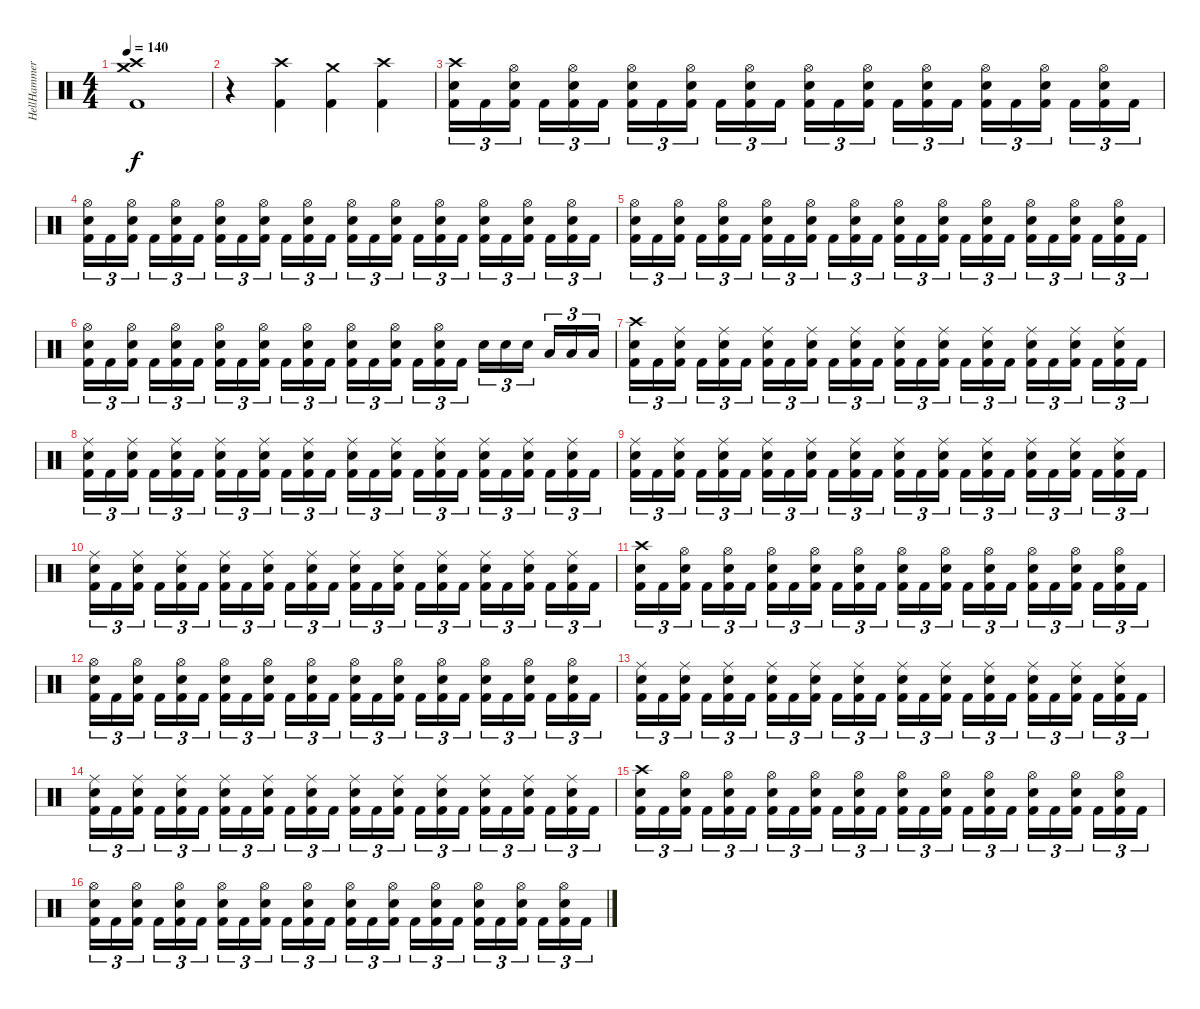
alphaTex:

\track ("HellHammer" "HellHammer") {instrument percussion}
\staff {score}
\articulation defaults
\ts (4 4)
\tempo 140
\clef neutral
\ks c
("Crash medium (hit)" "Crash high (hit)" "Kick (hit) 2").1{dy f} |
r.4 ("Crash high (hit)" "Kick (hit) 2").4 ("Crash medium (hit)" "Kick (hit) 2").4 ("Crash high (hit)" "Kick (hit) 2").4 |
("Crash high (hit)" "Electric Snare (hit)" "Kick (hit) 2").16{tu (3 2)} "Kick (hit) 2".16{tu (3 2)} ("Hi-Hat (open)" "Electric Snare (hit)" "Kick (hit) 2").16{tu (3 2) beam splitsecondary} "Kick (hit) 2".16{tu (3 2)} ("Hi-Hat (open)" "Electric Snare (hit)" "Kick (hit) 2").16{tu (3 2)} "Kick (hit) 2".16{tu (3 2)} ("Hi-Hat (open)" "Electric Snare (hit)" "Kick (hit) 2").16{tu (3 2)} "Kick (hit) 2".16{tu (3 2)} ("Hi-Hat (open)" "Electric Snare (hit)" "Kick (hit) 2").16{tu (3 2) beam splitsecondary} "Kick (hit) 2".16{tu (3 2)} ("Hi-Hat (open)" "Electric Snare (hit)" "Kick (hit) 2").16{tu (3 2)} "Kick (hit) 2".16{tu (3 2)} ("Hi-Hat (open)" "Electric Snare (hit)" "Kick (hit) 2").16{tu (3 2)} "Kick (hit) 2".16{tu (3 2)} ("Hi-Hat (open)" "Electric Snare (hit)" "Kick (hit) 2").16{tu (3 2) beam splitsecondary} "Kick (hit) 2".16{tu (3 2)} ("Hi-Hat (open)" "Electric Snare (hit)" "Kick (hit) 2").16{tu (3 2)} "Kick (hit) 2".16{tu (3 2)} ("Hi-Hat (open)" "Electric Snare (hit)" "Kick (hit) 2").16{tu (3 2)} "Kick (hit) 2".16{tu (3 2)} ("Hi-Hat (open)" "Electric Snare (hit)" "Kick (hit) 2").16{tu (3 2) beam splitsecondary} "Kick (hit) 2".16{tu (3 2)} ("Hi-Hat (open)" "Electric Snare (hit)" "Kick (hit) 2").16{tu (3 2)} "Kick (hit) 2".16{tu (3 2)} |
("Hi-Hat (open)" "Electric Snare (hit)" "Kick (hit) 2").16{tu (3 2)} "Kick (hit) 2".16{tu (3 2)} ("Hi-Hat (open)" "Electric Snare (hit)" "Kick (hit) 2").16{tu (3 2) beam splitsecondary} "Kick (hit) 2".16{tu (3 2)} ("Hi-Hat (open)" "Electric Snare (hit)" "Kick (hit) 2").16{tu (3 2)} "Kick (hit) 2".16{tu (3 2)} ("Hi-Hat (open)" "Electric Snare (hit)" "Kick (hit) 2").16{tu (3 2)} "Kick (hit) 2".16{tu (3 2)} ("Hi-Hat (open)" "Electric Snare (hit)" "Kick (hit) 2").16{tu (3 2) beam splitsecondary} "Kick (hit) 2".16{tu (3 2)} ("Hi-Hat (open)" "Electric Snare (hit)" "Kick (hit) 2").16{tu (3 2)} "Kick (hit) 2".16{tu (3 2)} ("Hi-Hat (open)" "Electric Snare (hit)" "Kick (hit) 2").16{tu (3 2)} "Kick (hit) 2".16{tu (3 2)} ("Hi-Hat (open)" "Electric Snare (hit)" "Kick (hit) 2").16{tu (3 2) beam splitsecondary} "Kick (hit) 2".16{tu (3 2)} ("Hi-Hat (open)" "Electric Snare (hit)" "Kick (hit) 2").16{tu (3 2)} "Kick (hit) 2".16{tu (3 2)} ("Hi-Hat (open)" "Electric Snare (hit)" "Kick (hit) 2").16{tu (3 2)} "Kick (hit) 2".16{tu (3 2)} ("Hi-Hat (open)" "Electric Snare (hit)" "Kick (hit) 2").16{tu (3 2) beam splitsecondary} "Kick (hit) 2".16{tu (3 2)} ("Hi-Hat (open)" "Electric Snare (hit)" "Kick (hit) 2").16{tu (3 2)} "Kick (hit) 2".16{tu (3 2)} |
("Hi-Hat (open)" "Electric Snare (hit)" "Kick (hit) 2").16{tu (3 2)} "Kick (hit) 2".16{tu (3 2)} ("Hi-Hat (open)" "Electric Snare (hit)" "Kick (hit) 2").16{tu (3 2) beam splitsecondary} "Kick (hit) 2".16{tu (3 2)} ("Hi-Hat (open)" "Electric Snare (hit)" "Kick (hit) 2").16{tu (3 2)} "Kick (hit) 2".16{tu (3 2)} ("Hi-Hat (open)" "Electric Snare (hit)" "Kick (hit) 2").16{tu (3 2)} "Kick (hit) 2".16{tu (3 2)} ("Hi-Hat (open)" "Electric Snare (hit)" "Kick (hit) 2").16{tu (3 2) beam splitsecondary} "Kick (hit) 2".16{tu (3 2)} ("Hi-Hat (open)" "Electric Snare (hit)" "Kick (hit) 2").16{tu (3 2)} "Kick (hit) 2".16{tu (3 2)} ("Hi-Hat (open)" "Electric Snare (hit)" "Kick (hit) 2").16{tu (3 2)} "Kick (hit) 2".16{tu (3 2)} ("Hi-Hat (open)" "Electric Snare (hit)" "Kick (hit) 2").16{tu (3 2) beam splitsecondary} "Kick (hit) 2".16{tu (3 2)} ("Hi-Hat (open)" "Electric Snare (hit)" "Kick (hit) 2").16{tu (3 2)} "Kick (hit) 2".16{tu (3 2)} ("Hi-Hat (open)" "Electric Snare (hit)" "Kick (hit) 2").16{tu (3 2)} "Kick (hit) 2".16{tu (3 2)} ("Hi-Hat (open)" "Electric Snare (hit)" "Kick (hit) 2").16{tu (3 2) beam splitsecondary} "Kick (hit) 2".16{tu (3 2)} ("Hi-Hat (open)" "Electric Snare (hit)" "Kick (hit) 2").16{tu (3 2)} "Kick (hit) 2".16{tu (3 2)} |
("Hi-Hat (open)" "Electric Snare (hit)" "Kick (hit) 2").16{tu (3 2)} "Kick (hit) 2".16{tu (3 2)} ("Hi-Hat (open)" "Electric Snare (hit)" "Kick (hit) 2").16{tu (3 2) beam splitsecondary} "Kick (hit) 2".16{tu (3 2)} ("Hi-Hat (open)" "Electric Snare (hit)" "Kick (hit) 2").16{tu (3 2)} "Kick (hit) 2".16{tu (3 2)} ("Hi-Hat (open)" "Electric Snare (hit)" "Kick (hit) 2").16{tu (3 2)} "Kick (hit) 2".16{tu (3 2)} ("Hi-Hat (open)" "Electric Snare (hit)" "Kick (hit) 2").16{tu (3 2) beam splitsecondary} "Kick (hit) 2".16{tu (3 2)} ("Hi-Hat (open)" "Electric Snare (hit)" "Kick (hit) 2").16{tu (3 2)} "Kick (hit) 2".16{tu (3 2)} ("Hi-Hat (open)" "Electric Snare (hit)" "Kick (hit) 2").16{tu (3 2)} "Kick (hit) 2".16{tu (3 2)} ("Hi-Hat (open)" "Electric Snare (hit)" "Kick (hit) 2").16{tu (3 2) beam splitsecondary} "Kick (hit) 2".16{tu (3 2)} ("Hi-Hat (open)" "Electric Snare (hit)" "Kick (hit) 2").16{tu (3 2)} "Kick (hit) 2".16{tu (3 2)} "Electric Snare (hit)".16{tu (3 2)} "Electric Snare (hit)".16{tu (3 2)} "Electric Snare (hit)".16{tu (3 2) beam splitsecondary} "Low Tom (hit)".16{tu (3 2)} "Low Tom (hit)".16{tu (3 2)} "Low Tom (hit)".16{tu (3 2)} |
("Crash high (hit)" "Electric Snare (hit)" "Kick (hit) 2").16{tu (3 2)} "Kick (hit) 2".16{tu (3 2)} ("Ride (middle)" "Electric Snare (hit)" "Kick (hit) 2").16{tu (3 2) beam splitsecondary} "Kick (hit) 2".16{tu (3 2)} ("Ride (middle)" "Electric Snare (hit)" "Kick (hit) 2").16{tu (3 2)} "Kick (hit) 2".16{tu (3 2)} ("Ride (middle)" "Electric Snare (hit)" "Kick (hit) 2").16{tu (3 2)} "Kick (hit) 2".16{tu (3 2)} ("Ride (middle)" "Electric Snare (hit)" "Kick (hit) 2").16{tu (3 2) beam splitsecondary} "Kick (hit) 2".16{tu (3 2)} ("Ride (middle)" "Electric Snare (hit)" "Kick (hit) 2").16{tu (3 2)} "Kick (hit) 2".16{tu (3 2)} ("Ride (middle)" "Electric Snare (hit)" "Kick (hit) 2").16{tu (3 2)} "Kick (hit) 2".16{tu (3 2)} ("Ride (middle)" "Electric Snare (hit)" "Kick (hit) 2").16{tu (3 2) beam splitsecondary} "Kick (hit) 2".16{tu (3 2)} ("Ride (middle)" "Electric Snare (hit)" "Kick (hit) 2").16{tu (3 2)} "Kick (hit) 2".16{tu (3 2)} ("Ride (middle)" "Electric Snare (hit)" "Kick (hit) 2").16{tu (3 2)} "Kick (hit) 2".16{tu (3 2)} ("Ride (middle)" "Electric Snare (hit)" "Kick (hit) 2").16{tu (3 2) beam splitsecondary} "Kick (hit) 2".16{tu (3 2)} ("Ride (middle)" "Electric Snare (hit)" "Kick (hit) 2").16{tu (3 2)} "Kick (hit) 2".16{tu (3 2)} |
("Ride (middle)" "Electric Snare (hit)" "Kick (hit) 2").16{tu (3 2)} "Kick (hit) 2".16{tu (3 2)} ("Ride (middle)" "Electric Snare (hit)" "Kick (hit) 2").16{tu (3 2) beam splitsecondary} "Kick (hit) 2".16{tu (3 2)} ("Ride (middle)" "Electric Snare (hit)" "Kick (hit) 2").16{tu (3 2)} "Kick (hit) 2".16{tu (3 2)} ("Ride (middle)" "Electric Snare (hit)" "Kick (hit) 2").16{tu (3 2)} "Kick (hit) 2".16{tu (3 2)} ("Ride (middle)" "Electric Snare (hit)" "Kick (hit) 2").16{tu (3 2) beam splitsecondary} "Kick (hit) 2".16{tu (3 2)} ("Ride (middle)" "Electric Snare (hit)" "Kick (hit) 2").16{tu (3 2)} "Kick (hit) 2".16{tu (3 2)} ("Ride (middle)" "Electric Snare (hit)" "Kick (hit) 2").16{tu (3 2)} "Kick (hit) 2".16{tu (3 2)} ("Ride (middle)" "Electric Snare (hit)" "Kick (hit) 2").16{tu (3 2) beam splitsecondary} "Kick (hit) 2".16{tu (3 2)} ("Ride (middle)" "Electric Snare (hit)" "Kick (hit) 2").16{tu (3 2)} "Kick (hit) 2".16{tu (3 2)} ("Ride (middle)" "Electric Snare (hit)" "Kick (hit) 2").16{tu (3 2)} "Kick (hit) 2".16{tu (3 2)} ("Ride (middle)" "Electric Snare (hit)" "Kick (hit) 2").16{tu (3 2) beam splitsecondary} "Kick (hit) 2".16{tu (3 2)} ("Ride (middle)" "Electric Snare (hit)" "Kick (hit) 2").16{tu (3 2)} "Kick (hit) 2".16{tu (3 2)} |
("Ride (middle)" "Electric Snare (hit)" "Kick (hit) 2").16{tu (3 2)} "Kick (hit) 2".16{tu (3 2)} ("Ride (middle)" "Electric Snare (hit)" "Kick (hit) 2").16{tu (3 2) beam splitsecondary} "Kick (hit) 2".16{tu (3 2)} ("Ride (middle)" "Electric Snare (hit)" "Kick (hit) 2").16{tu (3 2)} "Kick (hit) 2".16{tu (3 2)} ("Ride (middle)" "Electric Snare (hit)" "Kick (hit) 2").16{tu (3 2)} "Kick (hit) 2".16{tu (3 2)} ("Ride (middle)" "Electric Snare (hit)" "Kick (hit) 2").16{tu (3 2) beam splitsecondary} "Kick (hit) 2".16{tu (3 2)} ("Ride (middle)" "Electric Snare (hit)" "Kick (hit) 2").16{tu (3 2)} "Kick (hit) 2".16{tu (3 2)} ("Ride (middle)" "Electric Snare (hit)" "Kick (hit) 2").16{tu (3 2)} "Kick (hit) 2".16{tu (3 2)} ("Ride (middle)" "Electric Snare (hit)" "Kick (hit) 2").16{tu (3 2) beam splitsecondary} "Kick (hit) 2".16{tu (3 2)} ("Ride (middle)" "Electric Snare (hit)" "Kick (hit) 2").16{tu (3 2)} "Kick (hit) 2".16{tu (3 2)} ("Ride (middle)" "Electric Snare (hit)" "Kick (hit) 2").16{tu (3 2)} "Kick (hit) 2".16{tu (3 2)} ("Ride (middle)" "Electric Snare (hit)" "Kick (hit) 2").16{tu (3 2) beam splitsecondary} "Kick (hit) 2".16{tu (3 2)} ("Ride (middle)" "Electric Snare (hit)" "Kick (hit) 2").16{tu (3 2)} "Kick (hit) 2".16{tu (3 2)} |
("Ride (middle)" "Electric Snare (hit)" "Kick (hit) 2").16{tu (3 2)} "Kick (hit) 2".16{tu (3 2)} ("Ride (middle)" "Electric Snare (hit)" "Kick (hit) 2").16{tu (3 2) beam splitsecondary} "Kick (hit) 2".16{tu (3 2)} ("Ride (middle)" "Electric Snare (hit)" "Kick (hit) 2").16{tu (3 2)} "Kick (hit) 2".16{tu (3 2)} ("Ride (middle)" "Electric Snare (hit)" "Kick (hit) 2").16{tu (3 2)} "Kick (hit) 2".16{tu (3 2)} ("Ride (middle)" "Electric Snare (hit)" "Kick (hit) 2").16{tu (3 2) beam splitsecondary} "Kick (hit) 2".16{tu (3 2)} ("Ride (middle)" "Electric Snare (hit)" "Kick (hit) 2").16{tu (3 2)} "Kick (hit) 2".16{tu (3 2)} ("Ride (middle)" "Electric Snare (hit)" "Kick (hit) 2").16{tu (3 2)} "Kick (hit) 2".16{tu (3 2)} ("Ride (middle)" "Electric Snare (hit)" "Kick (hit) 2").16{tu (3 2) beam splitsecondary} "Kick (hit) 2".16{tu (3 2)} ("Ride (middle)" "Electric Snare (hit)" "Kick (hit) 2").16{tu (3 2)} "Kick (hit) 2".16{tu (3 2)} ("Ride (middle)" "Electric Snare (hit)" "Kick (hit) 2").16{tu (3 2)} "Kick (hit) 2".16{tu (3 2)} ("Ride (middle)" "Electric Snare (hit)" "Kick (hit) 2").16{tu (3 2) beam splitsecondary} "Kick (hit) 2".16{tu (3 2)} ("Ride (middle)" "Electric Snare (hit)" "Kick (hit) 2").16{tu (3 2)} "Kick (hit) 2".16{tu (3 2)} |
("Crash high (hit)" "Electric Snare (hit)" "Kick (hit) 2").16{tu (3 2)} "Kick (hit) 2".16{tu (3 2)} ("Hi-Hat (open)" "Electric Snare (hit)" "Kick (hit) 2").16{tu (3 2) beam splitsecondary} "Kick (hit) 2".16{tu (3 2)} ("Hi-Hat (open)" "Electric Snare (hit)" "Kick (hit) 2").16{tu (3 2)} "Kick (hit) 2".16{tu (3 2)} ("Hi-Hat (open)" "Electric Snare (hit)" "Kick (hit) 2").16{tu (3 2)} "Kick (hit) 2".16{tu (3 2)} ("Hi-Hat (open)" "Electric Snare (hit)" "Kick (hit) 2").16{tu (3 2) beam splitsecondary} "Kick (hit) 2".16{tu (3 2)} ("Hi-Hat (open)" "Electric Snare (hit)" "Kick (hit) 2").16{tu (3 2)} "Kick (hit) 2".16{tu (3 2)} ("Hi-Hat (open)" "Electric Snare (hit)" "Kick (hit) 2").16{tu (3 2)} "Kick (hit) 2".16{tu (3 2)} ("Hi-Hat (open)" "Electric Snare (hit)" "Kick (hit) 2").16{tu (3 2) beam splitsecondary} "Kick (hit) 2".16{tu (3 2)} ("Hi-Hat (open)" "Electric Snare (hit)" "Kick (hit) 2").16{tu (3 2)} "Kick (hit) 2".16{tu (3 2)} ("Hi-Hat (open)" "Electric Snare (hit)" "Kick (hit) 2").16{tu (3 2)} "Kick (hit) 2".16{tu (3 2)} ("Hi-Hat (open)" "Electric Snare (hit)" "Kick (hit) 2").16{tu (3 2) beam splitsecondary} "Kick (hit) 2".16{tu (3 2)} ("Hi-Hat (open)" "Electric Snare (hit)" "Kick (hit) 2").16{tu (3 2)} "Kick (hit) 2".16{tu (3 2)} |
("Hi-Hat (open)" "Electric Snare (hit)" "Kick (hit) 2").16{tu (3 2)} "Kick (hit) 2".16{tu (3 2)} ("Hi-Hat (open)" "Electric Snare (hit)" "Kick (hit) 2").16{tu (3 2) beam splitsecondary} "Kick (hit) 2".16{tu (3 2)} ("Hi-Hat (open)" "Electric Snare (hit)" "Kick (hit) 2").16{tu (3 2)} "Kick (hit) 2".16{tu (3 2)} ("Hi-Hat (open)" "Electric Snare (hit)" "Kick (hit) 2").16{tu (3 2)} "Kick (hit) 2".16{tu (3 2)} ("Hi-Hat (open)" "Electric Snare (hit)" "Kick (hit) 2").16{tu (3 2) beam splitsecondary} "Kick (hit) 2".16{tu (3 2)} ("Hi-Hat (open)" "Electric Snare (hit)" "Kick (hit) 2").16{tu (3 2)} "Kick (hit) 2".16{tu (3 2)} ("Hi-Hat (open)" "Electric Snare (hit)" "Kick (hit) 2").16{tu (3 2)} "Kick (hit) 2".16{tu (3 2)} ("Hi-Hat (open)" "Electric Snare (hit)" "Kick (hit) 2").16{tu (3 2) beam splitsecondary} "Kick (hit) 2".16{tu (3 2)} ("Hi-Hat (open)" "Electric Snare (hit)" "Kick (hit) 2").16{tu (3 2)} "Kick (hit) 2".16{tu (3 2)} ("Hi-Hat (open)" "Electric Snare (hit)" "Kick (hit) 2").16{tu (3 2)} "Kick (hit) 2".16{tu (3 2)} ("Hi-Hat (open)" "Electric Snare (hit)" "Kick (hit) 2").16{tu (3 2) beam splitsecondary} "Kick (hit) 2".16{tu (3 2)} ("Hi-Hat (open)" "Electric Snare (hit)" "Kick (hit) 2").16{tu (3 2)} "Kick (hit) 2".16{tu (3 2)} |
("Ride (middle)" "Electric Snare (hit)" "Kick (hit) 2").16{tu (3 2)} "Kick (hit) 2".16{tu (3 2)} ("Ride (middle)" "Electric Snare (hit)" "Kick (hit) 2").16{tu (3 2) beam splitsecondary} "Kick (hit) 2".16{tu (3 2)} ("Ride (middle)" "Electric Snare (hit)" "Kick (hit) 2").16{tu (3 2)} "Kick (hit) 2".16{tu (3 2)} ("Ride (middle)" "Electric Snare (hit)" "Kick (hit) 2").16{tu (3 2)} "Kick (hit) 2".16{tu (3 2)} ("Ride (middle)" "Electric Snare (hit)" "Kick (hit) 2").16{tu (3 2) beam splitsecondary} "Kick (hit) 2".16{tu (3 2)} ("Ride (middle)" "Electric Snare (hit)" "Kick (hit) 2").16{tu (3 2)} "Kick (hit) 2".16{tu (3 2)} ("Ride (middle)" "Electric Snare (hit)" "Kick (hit) 2").16{tu (3 2)} "Kick (hit) 2".16{tu (3 2)} ("Ride (middle)" "Electric Snare (hit)" "Kick (hit) 2").16{tu (3 2) beam splitsecondary} "Kick (hit) 2".16{tu (3 2)} ("Ride (middle)" "Electric Snare (hit)" "Kick (hit) 2").16{tu (3 2)} "Kick (hit) 2".16{tu (3 2)} ("Ride (middle)" "Electric Snare (hit)" "Kick (hit) 2").16{tu (3 2)} "Kick (hit) 2".16{tu (3 2)} ("Ride (middle)" "Electric Snare (hit)" "Kick (hit) 2").16{tu (3 2) beam splitsecondary} "Kick (hit) 2".16{tu (3 2)} ("Ride (middle)" "Electric Snare (hit)" "Kick (hit) 2").16{tu (3 2)} "Kick (hit) 2".16{tu (3 2)} |
("Ride (middle)" "Electric Snare (hit)" "Kick (hit) 2").16{tu (3 2)} "Kick (hit) 2".16{tu (3 2)} ("Ride (middle)" "Electric Snare (hit)" "Kick (hit) 2").16{tu (3 2) beam splitsecondary} "Kick (hit) 2".16{tu (3 2)} ("Ride (middle)" "Electric Snare (hit)" "Kick (hit) 2").16{tu (3 2)} "Kick (hit) 2".16{tu (3 2)} ("Ride (middle)" "Electric Snare (hit)" "Kick (hit) 2").16{tu (3 2)} "Kick (hit) 2".16{tu (3 2)} ("Ride (middle)" "Electric Snare (hit)" "Kick (hit) 2").16{tu (3 2) beam splitsecondary} "Kick (hit) 2".16{tu (3 2)} ("Ride (middle)" "Electric Snare (hit)" "Kick (hit) 2").16{tu (3 2)} "Kick (hit) 2".16{tu (3 2)} ("Ride (middle)" "Electric Snare (hit)" "Kick (hit) 2").16{tu (3 2)} "Kick (hit) 2".16{tu (3 2)} ("Ride (middle)" "Electric Snare (hit)" "Kick (hit) 2").16{tu (3 2) beam splitsecondary} "Kick (hit) 2".16{tu (3 2)} ("Ride (middle)" "Electric Snare (hit)" "Kick (hit) 2").16{tu (3 2)} "Kick (hit) 2".16{tu (3 2)} ("Ride (middle)" "Electric Snare (hit)" "Kick (hit) 2").16{tu (3 2)} "Kick (hit) 2".16{tu (3 2)} ("Ride (middle)" "Electric Snare (hit)" "Kick (hit) 2").16{tu (3 2) beam splitsecondary} "Kick (hit) 2".16{tu (3 2)} ("Ride (middle)" "Electric Snare (hit)" "Kick (hit) 2").16{tu (3 2)} "Kick (hit) 2".16{tu (3 2)} |
("Crash high (hit)" "Electric Snare (hit)" "Kick (hit) 2").16{tu (3 2)} "Kick (hit) 2".16{tu (3 2)} ("Hi-Hat (open)" "Electric Snare (hit)" "Kick (hit) 2").16{tu (3 2) beam splitsecondary} "Kick (hit) 2".16{tu (3 2)} ("Hi-Hat (open)" "Electric Snare (hit)" "Kick (hit) 2").16{tu (3 2)} "Kick (hit) 2".16{tu (3 2)} ("Hi-Hat (open)" "Electric Snare (hit)" "Kick (hit) 2").16{tu (3 2)} "Kick (hit) 2".16{tu (3 2)} ("Hi-Hat (open)" "Electric Snare (hit)" "Kick (hit) 2").16{tu (3 2) beam splitsecondary} "Kick (hit) 2".16{tu (3 2)} ("Hi-Hat (open)" "Electric Snare (hit)" "Kick (hit) 2").16{tu (3 2)} "Kick (hit) 2".16{tu (3 2)} ("Hi-Hat (open)" "Electric Snare (hit)" "Kick (hit) 2").16{tu (3 2)} "Kick (hit) 2".16{tu (3 2)} ("Hi-Hat (open)" "Electric Snare (hit)" "Kick (hit) 2").16{tu (3 2) beam splitsecondary} "Kick (hit) 2".16{tu (3 2)} ("Hi-Hat (open)" "Electric Snare (hit)" "Kick (hit) 2").16{tu (3 2)} "Kick (hit) 2".16{tu (3 2)} ("Hi-Hat (open)" "Electric Snare (hit)" "Kick (hit) 2").16{tu (3 2)} "Kick (hit) 2".16{tu (3 2)} ("Hi-Hat (open)" "Electric Snare (hit)" "Kick (hit) 2").16{tu (3 2) beam splitsecondary} "Kick (hit) 2".16{tu (3 2)} ("Hi-Hat (open)" "Electric Snare (hit)" "Kick (hit) 2").16{tu (3 2)} "Kick (hit) 2".16{tu (3 2)} |
("Hi-Hat (open)" "Electric Snare (hit)" "Kick (hit) 2").16{tu (3 2)} "Kick (hit) 2".16{tu (3 2)} ("Hi-Hat (open)" "Electric Snare (hit)" "Kick (hit) 2").16{tu (3 2) beam splitsecondary} "Kick (hit) 2".16{tu (3 2)} ("Hi-Hat (open)" "Electric Snare (hit)" "Kick (hit) 2").16{tu (3 2)} "Kick (hit) 2".16{tu (3 2)} ("Hi-Hat (open)" "Electric Snare (hit)" "Kick (hit) 2").16{tu (3 2)} "Kick (hit) 2".16{tu (3 2)} ("Hi-Hat (open)" "Electric Snare (hit)" "Kick (hit) 2").16{tu (3 2) beam splitsecondary} "Kick (hit) 2".16{tu (3 2)} ("Hi-Hat (open)" "Electric Snare (hit)" "Kick (hit) 2").16{tu (3 2)} "Kick (hit) 2".16{tu (3 2)} ("Hi-Hat (open)" "Electric Snare (hit)" "Kick (hit) 2").16{tu (3 2)} "Kick (hit) 2".16{tu (3 2)} ("Hi-Hat (open)" "Electric Snare (hit)" "Kick (hit) 2").16{tu (3 2) beam splitsecondary} "Kick (hit) 2".16{tu (3 2)} ("Hi-Hat (open)" "Electric Snare (hit)" "Kick (hit) 2").16{tu (3 2)} "Kick (hit) 2".16{tu (3 2)} ("Hi-Hat (open)" "Electric Snare (hit)" "Kick (hit) 2").16{tu (3 2)} "Kick (hit) 2".16{tu (3 2)} ("Hi-Hat (open)" "Electric Snare (hit)" "Kick (hit) 2").16{tu (3 2) beam splitsecondary} "Kick (hit) 2".16{tu (3 2)} ("Hi-Hat (open)" "Electric Snare (hit)" "Kick (hit) 2").16{tu (3 2)} "Kick (hit) 2".16{tu (3 2)}
